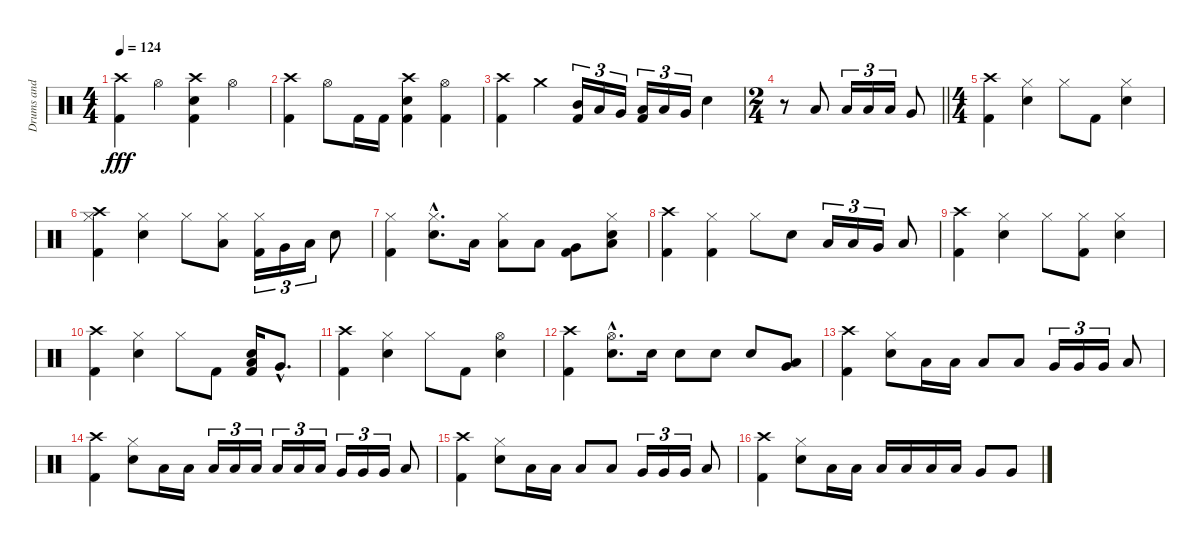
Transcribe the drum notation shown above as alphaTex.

\track ("Drums and percussion" "Drums and ") {instrument percussion}
\staff {score}
\articulation defaults
\ts (4 4)
\tempo 124
\clef neutral
\ks c
("Crash high (hit)" "Kick (hit) 2").4{dy fff} "Hi-Hat (open)".4 ("Crash high (hit)" "Snare (hit) 2" "Kick (hit) 2").4 "Hi-Hat (open)".4 |
("Crash high (hit)" "Kick (hit) 2").4 "Hi-Hat (open)".8 "Kick (hit) 2".16 "Kick (hit) 2".16 ("Crash high (hit)" "Snare (hit) 2" "Kick (hit) 2").4 ("Hi-Hat (open)" "Kick (hit) 2").4 |
("Crash high (hit)" "Kick (hit) 2").4 "Crash medium (hit)".4 ("Mid Tom (hit)" "Kick (hit) 2").16{tu (3 2)} "Low Tom (hit)".16{tu (3 2)} "Very Low Tom (hit)".16{tu (3 2)} ("Low Floor Tom (hit)" "Kick (hit) 2").16{tu (3 2)} "Low Tom (hit)".16{tu (3 2)} "Very Low Tom (hit)".16{tu (3 2)} "Snare (hit) 2".4 |
\ts (2 4)
\barLineRight lightlight
r.8 "Low Tom (hit)".8 "Low Tom (hit)".16{tu (3 2)} "Low Tom (hit)".16{tu (3 2)} "Low Tom (hit)".16{tu (3 2)} "Very Low Tom (hit)".8 |
\ts (4 4)
("Crash high (hit)" "Kick (hit) 2").4 ("Hi-Hat (closed)" "Snare (hit) 2").4 "Hi-Hat (closed)".8 "Kick (hit) 2".8 ("Hi-Hat (closed)" "Snare (hit) 2").4 |
("Hi-Hat (closed)" "Crash high (hit)" "Kick (hit) 2").4 ("Hi-Hat (closed)" "Snare (hit) 2").4 "Hi-Hat (closed)".8 ("Hi-Hat (closed)" "Low Tom (hit)").8 ("Hi-Hat (closed)" "Kick (hit) 2").16{tu (3 2)} "Very Low Tom (hit)".16{tu (3 2)} "Low Floor Tom (hit)".16{tu (3 2)} "Snare (hit) 2".8 |
("Hi-Hat (closed)" "Kick (hit) 2").4 ("Hi-Hat (closed)"{hac} "Snare (hit) 2"{hac}).8{d} "Low Tom (hit)".16 ("Hi-Hat (closed)" "Low Tom (hit)").8 "Low Tom (hit)".8 ("Very Low Tom (hit)" "Kick (hit) 2").8 ("Hi-Hat (closed)" "Low Floor Tom (hit)" "Snare (hit) 2").8 |
("Crash high (hit)" "Kick (hit) 2").4 ("Hi-Hat (closed)" "Kick (hit) 2").4 "Hi-Hat (closed)".8 "Snare (hit) 2".8 "Low Tom (hit)".16{tu (3 2)} "Low Tom (hit)".16{tu (3 2)} "Very Low Tom (hit)".16{tu (3 2)} "Low Floor Tom (hit)".8 |
("Crash high (hit)" "Kick (hit) 2").4 ("Hi-Hat (closed)" "Snare (hit) 2").4 "Hi-Hat (closed)".8 ("Hi-Hat (closed)" "Kick (hit) 2").8 ("Hi-Hat (closed)" "Snare (hit) 2").4 |
("Crash high (hit)" "Kick (hit) 2").4 ("Hi-Hat (closed)" "Snare (hit) 2").4 "Hi-Hat (closed)".8 "Kick (hit) 2".8 ("Low Tom (hit)" "Snare (hit) 2" "Kick (hit) 2").16 "Very Low Tom (hit)"{hac}.8{d} |
("Crash high (hit)" "Kick (hit) 2").4 ("Hi-Hat (closed)" "Snare (hit) 2").4 "Hi-Hat (closed)".8 "Kick (hit) 2".8 ("Hi-Hat (open)" "Snare (hit) 2").4 |
("Crash high (hit)" "Kick (hit) 2").4 ("Hi-Hat (open)"{hac} "Snare (hit) 2"{hac}).8{d} "Snare (hit) 2".16 "Snare (hit) 2".8 "Snare (hit) 2".8 "Snare (hit) 2".8 ("Very Low Tom (hit)" "Low Floor Tom (hit)").8 |
("Crash high (hit)" "Kick (hit) 2").4 ("Hi-Hat (closed)" "Snare (hit) 2").8 "Low Tom (hit)".16 "Low Tom (hit)".16 "Low Tom (hit)".8 "Low Tom (hit)".8 "Very Low Tom (hit)".16{tu (3 2)} "Very Low Tom (hit)".16{tu (3 2)} "Very Low Tom (hit)".16{tu (3 2)} "Low Floor Tom (hit)".8 |
("Crash high (hit)" "Kick (hit) 2").4 ("Hi-Hat (closed)" "Snare (hit) 2").8 "Low Tom (hit)".16 "Low Tom (hit)".16 "Low Tom (hit)".16{tu (3 2)} "Low Tom (hit)".16{tu (3 2)} "Low Tom (hit)".16{tu (3 2)} "Low Tom (hit)".16{tu (3 2)} "Low Tom (hit)".16{tu (3 2)} "Low Tom (hit)".16{tu (3 2)} "Very Low Tom (hit)".16{tu (3 2)} "Very Low Tom (hit)".16{tu (3 2)} "Very Low Tom (hit)".16{tu (3 2)} "Low Floor Tom (hit)".8 |
("Crash high (hit)" "Kick (hit) 2").4 ("Hi-Hat (closed)" "Snare (hit) 2").8 "Low Tom (hit)".16 "Low Tom (hit)".16 "Low Tom (hit)".8 "Low Tom (hit)".8 "Very Low Tom (hit)".16{tu (3 2)} "Very Low Tom (hit)".16{tu (3 2)} "Very Low Tom (hit)".16{tu (3 2)} "Low Floor Tom (hit)".8 |
("Crash high (hit)" "Kick (hit) 2").4 ("Hi-Hat (closed)" "Snare (hit) 2").8 "Low Tom (hit)".16 "Low Tom (hit)".16 "Low Tom (hit)".16 "Low Tom (hit)".16 "Low Tom (hit)".16 "Low Tom (hit)".16 "Very Low Tom (hit)".8 "Very Low Tom (hit)".8
